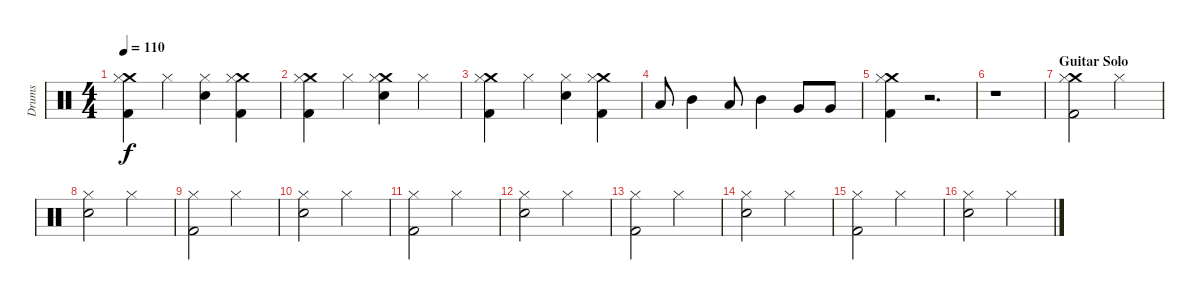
\track ("Drums" "Drums") {instrument percussion}
\staff {score}
\articulation defaults
\ts (4 4)
\tempo 110
\clef neutral
\ks c
("Crash medium (hit)" "Kick (hit) 2" "Hi-Hat (closed)").4{dy f} "Hi-Hat (closed)".4 ("Snare (hit) 2" "Hi-Hat (closed)").4 ("Crash medium (hit)" "Kick (hit) 2" "Hi-Hat (closed)").4 |
("Crash medium (hit)" "Kick (hit) 2" "Hi-Hat (closed)").4 "Hi-Hat (closed)".4 ("Crash medium (hit)" "Snare (hit) 2" "Hi-Hat (closed)").4 "Hi-Hat (closed)".4 |
("Crash medium (hit)" "Kick (hit) 2" "Hi-Hat (closed)").4 "Hi-Hat (closed)".4 ("Snare (hit) 2" "Hi-Hat (closed)").4 ("Crash medium (hit)" "Kick (hit) 2" "Hi-Hat (closed)").4 |
"Low Tom (hit)".8 "Mid Tom (hit)".4 "Low Tom (hit)".8 "Mid Tom (hit)".4 "Very Low Tom (hit)".8 "Very Low Tom (hit)".8 |
("Crash medium (hit)" "Kick (hit) 2" "Hi-Hat (closed)").4 r.2{d} |
r.1 |
\section ("" "Guitar Solo")
("Crash medium (hit)" "Kick (hit) 2" "Hi-Hat (closed)").2 "Hi-Hat (closed)".2 |
("Hi-Hat (closed)" "Snare (hit) 2").2 "Hi-Hat (closed)".2 |
("Hi-Hat (closed)" "Kick (hit) 2").2 "Hi-Hat (closed)".2 |
("Hi-Hat (closed)" "Snare (hit) 2").2 "Hi-Hat (closed)".2 |
("Hi-Hat (closed)" "Kick (hit) 2").2 "Hi-Hat (closed)".2 |
("Hi-Hat (closed)" "Snare (hit) 2").2 "Hi-Hat (closed)".2 |
("Hi-Hat (closed)" "Kick (hit) 2").2 "Hi-Hat (closed)".2 |
("Hi-Hat (closed)" "Snare (hit) 2").2 "Hi-Hat (closed)".2 |
("Hi-Hat (closed)" "Kick (hit) 2").2 "Hi-Hat (closed)".2 |
("Hi-Hat (closed)" "Snare (hit) 2").2 "Hi-Hat (closed)".2
